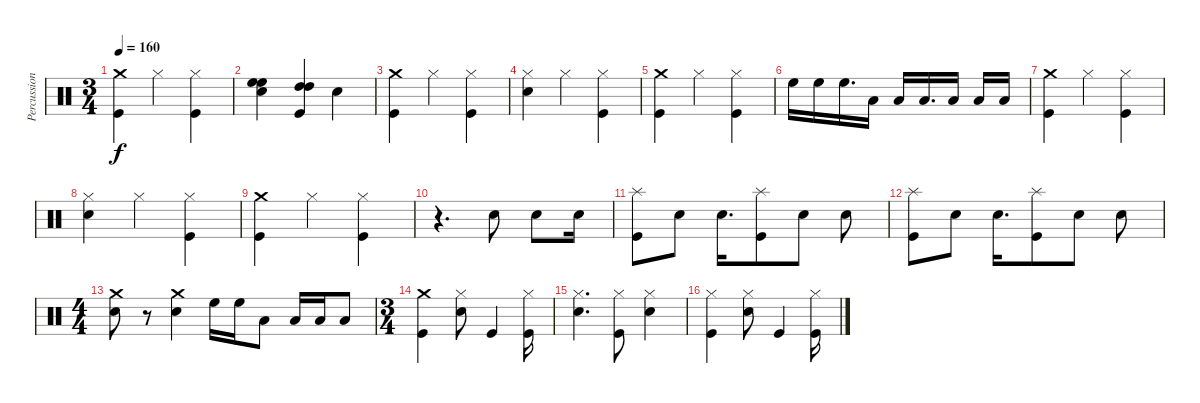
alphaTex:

\track ("Percussion" "Percussion") {instrument percussion}
\staff {score}
\articulation defaults
\ts (3 4)
\tempo 160
\clef neutral
\ks c
("Crash medium (hit)" "Kick (hit)").4{dy f} "Hi-Hat (closed)".4 ("Hi-Hat (closed)" "Kick (hit)").4 |
("High Floor Tom (hit)" "High Floor Tom (hit)" "Snare (hit) 2").4 ("High Tom (hit)" "High Tom (hit)" "Kick (hit)").4 "Snare (hit) 2".4 |
("Crash medium (hit)" "Kick (hit)").4 "Hi-Hat (closed)".4 ("Hi-Hat (closed)" "Kick (hit)").4 |
("Hi-Hat (closed)" "Snare (hit) 2").4 "Hi-Hat (closed)".4 ("Hi-Hat (closed)" "Kick (hit)").4 |
("Crash medium (hit)" "Kick (hit)").4 "Hi-Hat (closed)".4 ("Hi-Hat (closed)" "Kick (hit)").4 |
"High Floor Tom (hit)".16 "High Floor Tom (hit)".16 "High Floor Tom (hit)".16{d} "Low Tom (hit)".16 "Low Tom (hit)".16 "Low Tom (hit)".16{d} "Low Floor Tom (hit)".16 "Low Floor Tom (hit)".16 "Low Floor Tom (hit)".16 |
("Crash medium (hit)" "Kick (hit)").4 "Hi-Hat (closed)".4 ("Hi-Hat (closed)" "Kick (hit)").4 |
("Hi-Hat (closed)" "Snare (hit) 2").4 "Hi-Hat (closed)".4 ("Hi-Hat (closed)" "Kick (hit)").4 |
("Crash medium (hit)" "Kick (hit)").4 "Hi-Hat (closed)".4 ("Hi-Hat (closed)" "Kick (hit)").4 |
r.4{d} "Snare (hit) 2".8 "Snare (hit) 2".8 "Snare (hit) 2".16 |
("Splash (hit)" "Kick (hit)").8 "Snare (hit) 2".8 "Snare (hit) 2".16{d} ("Splash (hit)" "Kick (hit)").8 "Snare (hit) 2".8 "Snare (hit) 2".8 |
("Splash (hit)" "Kick (hit)").8 "Snare (hit) 2".8 "Snare (hit) 2".16{d} ("Splash (hit)" "Kick (hit)").8 "Snare (hit) 2".8 "Snare (hit) 2".8 |
\ts (4 4)
("Crash medium (hit)" "Snare (hit) 2").8 r.8 ("Crash medium (hit)" "Snare (hit) 2").4 "High Floor Tom (hit)".16 "High Floor Tom (hit)".16 "Low Tom (hit)".8 "Low Tom (hit)".16 "Low Tom (hit)".16 "Low Floor Tom (hit)".8 |
\ts (3 4)
("Crash medium (hit)" "Kick (hit)").4 ("Hi-Hat (closed)" "Snare (hit) 2").8 "Kick (hit)".4 ("Hi-Hat (closed)" "Kick (hit)").16 |
("Hi-Hat (closed)" "Snare (hit) 2").4{d} ("Hi-Hat (closed)" "Kick (hit)").8 ("Hi-Hat (closed)" "Snare (hit) 2").4 |
("Hi-Hat (closed)" "Kick (hit)").4 ("Hi-Hat (closed)" "Snare (hit) 2").8 "Kick (hit)".4 ("Hi-Hat (closed)" "Kick (hit)").16
